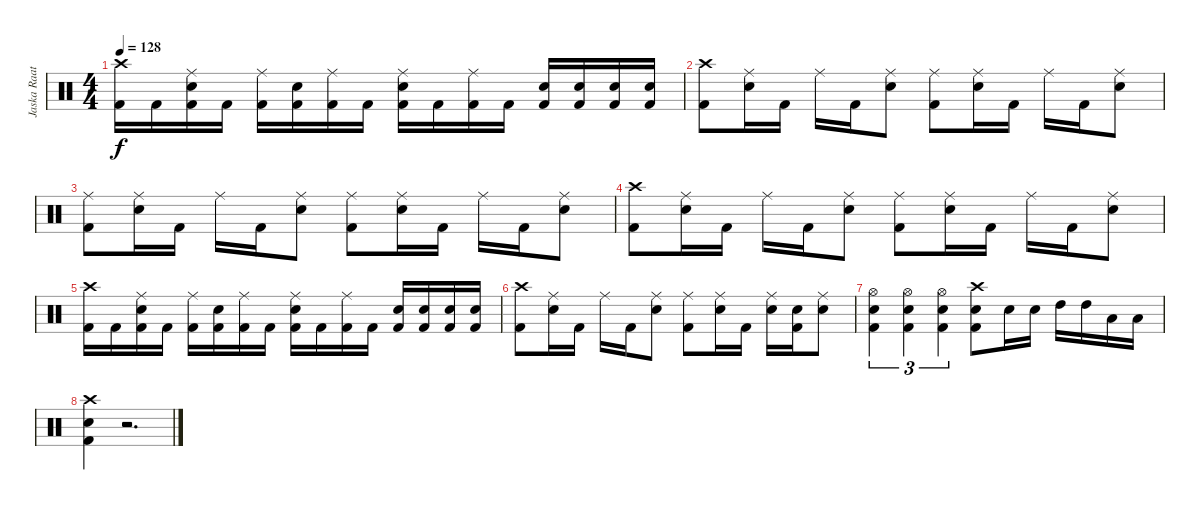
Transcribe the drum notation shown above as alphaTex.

\track ("Jaska Raatikainen" "Jaska Raat") {instrument percussion}
\staff {score}
\articulation defaults
\ts (4 4)
\tempo 128
\clef neutral
\ks c
("Crash high (hit)" "Kick (hit) 2").16{dy f} "Kick (hit) 2".16 ("Ride (middle)" "Electric Snare (hit)" "Kick (hit) 2").16 "Kick (hit) 2".16 ("Ride (middle)" "Kick (hit) 2").16 ("Electric Snare (hit)" "Kick (hit) 2").16 ("Ride (middle)" "Kick (hit) 2").16 "Kick (hit) 2".16 ("Ride (middle)" "Electric Snare (hit)" "Kick (hit) 2").16 "Kick (hit) 2".16 ("Ride (middle)" "Kick (hit) 2").16 "Kick (hit) 2".16 ("Electric Snare (hit)" "Kick (hit) 2").16 ("Electric Snare (hit)" "Kick (hit) 2").16 ("Electric Snare (hit)" "Kick (hit) 2").16 ("Electric Snare (hit)" "Kick (hit) 2").16 |
("Crash high (hit)" "Kick (hit) 2").8 ("Ride (middle)" "Electric Snare (hit)").16 "Kick (hit) 2".16 "Ride (middle)".16 "Kick (hit) 2".16 ("Ride (middle)" "Electric Snare (hit)").8 ("Ride (middle)" "Kick (hit) 2").8 ("Ride (middle)" "Electric Snare (hit)").16 "Kick (hit) 2".16 "Ride (middle)".16 "Kick (hit) 2".16 ("Ride (middle)" "Electric Snare (hit)").8 |
("Ride (middle)" "Kick (hit) 2").8 ("Ride (middle)" "Electric Snare (hit)").16 "Kick (hit) 2".16 "Ride (middle)".16 "Kick (hit) 2".16 ("Ride (middle)" "Electric Snare (hit)").8 ("Ride (middle)" "Kick (hit) 2").8 ("Ride (middle)" "Electric Snare (hit)").16 "Kick (hit) 2".16 "Ride (middle)".16 "Kick (hit) 2".16 ("Ride (middle)" "Electric Snare (hit)").8 |
("Crash high (hit)" "Kick (hit) 2").8 ("Ride (middle)" "Electric Snare (hit)").16 "Kick (hit) 2".16 "Ride (middle)".16 "Kick (hit) 2".16 ("Ride (middle)" "Electric Snare (hit)").8 ("Ride (middle)" "Kick (hit) 2").8 ("Ride (middle)" "Electric Snare (hit)").16 "Kick (hit) 2".16 "Ride (middle)".16 "Kick (hit) 2".16 ("Ride (middle)" "Electric Snare (hit)").8 |
("Crash high (hit)" "Kick (hit) 2").16 "Kick (hit) 2".16 ("Ride (middle)" "Electric Snare (hit)" "Kick (hit) 2").16 "Kick (hit) 2".16 ("Ride (middle)" "Kick (hit) 2").16 ("Electric Snare (hit)" "Kick (hit) 2").16 ("Ride (middle)" "Kick (hit) 2").16 "Kick (hit) 2".16 ("Ride (middle)" "Electric Snare (hit)" "Kick (hit) 2").16 "Kick (hit) 2".16 ("Ride (middle)" "Kick (hit) 2").16 "Kick (hit) 2".16 ("Electric Snare (hit)" "Kick (hit) 2").16 ("Electric Snare (hit)" "Kick (hit) 2").16 ("Electric Snare (hit)" "Kick (hit) 2").16 ("Electric Snare (hit)" "Kick (hit) 2").16 |
("Crash high (hit)" "Kick (hit) 2").8 ("Ride (middle)" "Electric Snare (hit)").16 "Kick (hit) 2".16 "Ride (middle)".16 "Kick (hit) 2".16 ("Ride (middle)" "Electric Snare (hit)").8 ("Ride (middle)" "Kick (hit) 2").8 ("Ride (middle)" "Electric Snare (hit)").16 "Kick (hit) 2".16 ("Ride (middle)" "Electric Snare (hit)").16 ("Electric Snare (hit)" "Kick (hit) 2").16 ("Ride (middle)" "Electric Snare (hit)").8 |
("Hi-Hat (open)" "Electric Snare (hit)" "Kick (hit) 2").4{tu (3 2)} ("Hi-Hat (open)" "Electric Snare (hit)" "Kick (hit) 2").4{tu (3 2)} ("Hi-Hat (open)" "Electric Snare (hit)" "Kick (hit) 2").4{tu (3 2)} ("Crash high (hit)" "Electric Snare (hit)" "Kick (hit) 2").8 "Electric Snare (hit)".16 "Electric Snare (hit)".16 "High Tom (hit)".16 "High Tom (hit)".16 "Low Tom (hit)".16 "Low Tom (hit)".16 |
("Crash high (hit)" "Electric Snare (hit)" "Kick (hit) 2").4 r.2{d}
